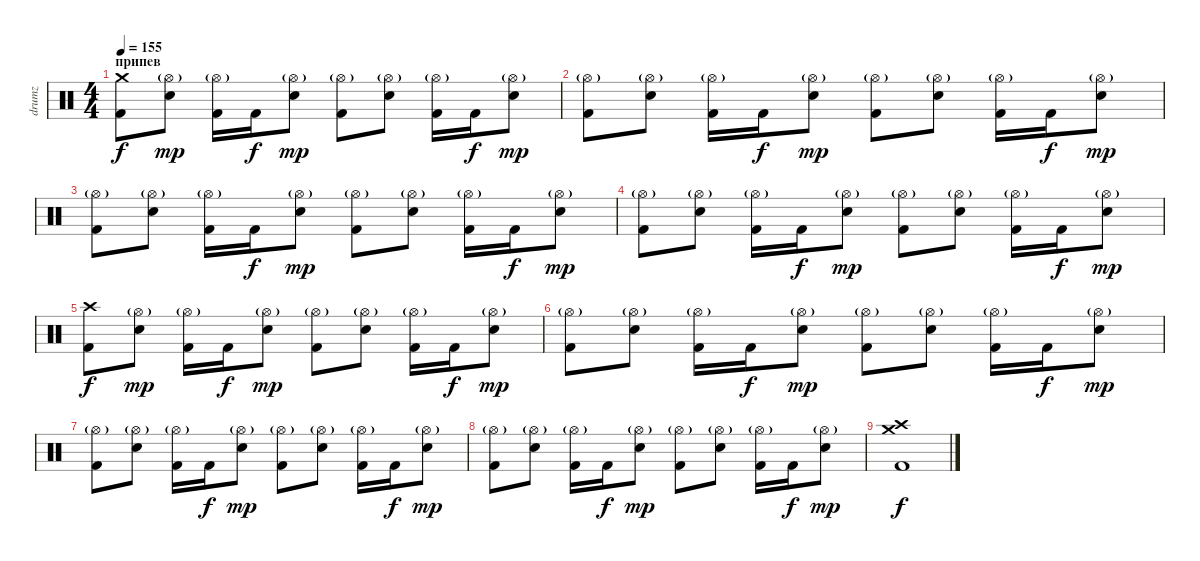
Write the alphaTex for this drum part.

\track ("drumz" "drumz") {instrument percussion}
\staff {score}
\articulation defaults
\ts (4 4)
\section ("" "припев")
\tempo 155
\clef neutral
\ks c
("Crash medium (hit)" "Kick (hit) 2").8{dy f} ("Hi-Hat (open)"{g} "Electric Snare (hit)").8{dy mp} ("Hi-Hat (open)"{g} "Kick (hit) 2").16 "Kick (hit) 2".16{dy f} ("Hi-Hat (open)"{g} "Electric Snare (hit)").8{dy mp} ("Hi-Hat (open)"{g} "Kick (hit) 2").8 ("Hi-Hat (open)"{g} "Electric Snare (hit)").8 ("Hi-Hat (open)"{g} "Kick (hit) 2").16 "Kick (hit) 2".16{dy f} ("Hi-Hat (open)"{g} "Electric Snare (hit)").8{dy mp} |
("Hi-Hat (open)"{g} "Kick (hit) 2").8 ("Hi-Hat (open)"{g} "Electric Snare (hit)").8 ("Hi-Hat (open)"{g} "Kick (hit) 2").16 "Kick (hit) 2".16{dy f} ("Hi-Hat (open)"{g} "Electric Snare (hit)").8{dy mp} ("Hi-Hat (open)"{g} "Kick (hit) 2").8 ("Hi-Hat (open)"{g} "Electric Snare (hit)").8 ("Hi-Hat (open)"{g} "Kick (hit) 2").16 "Kick (hit) 2".16{dy f} ("Hi-Hat (open)"{g} "Electric Snare (hit)").8{dy mp} |
("Hi-Hat (open)"{g} "Kick (hit) 2").8 ("Hi-Hat (open)"{g} "Electric Snare (hit)").8 ("Hi-Hat (open)"{g} "Kick (hit) 2").16 "Kick (hit) 2".16{dy f} ("Hi-Hat (open)"{g} "Electric Snare (hit)").8{dy mp} ("Hi-Hat (open)"{g} "Kick (hit) 2").8 ("Hi-Hat (open)"{g} "Electric Snare (hit)").8 ("Hi-Hat (open)"{g} "Kick (hit) 2").16 "Kick (hit) 2".16{dy f} ("Hi-Hat (open)"{g} "Electric Snare (hit)").8{dy mp} |
("Hi-Hat (open)"{g} "Kick (hit) 2").8 ("Hi-Hat (open)"{g} "Electric Snare (hit)").8 ("Hi-Hat (open)"{g} "Kick (hit) 2").16 "Kick (hit) 2".16{dy f} ("Hi-Hat (open)"{g} "Electric Snare (hit)").8{dy mp} ("Hi-Hat (open)"{g} "Kick (hit) 2").8 ("Hi-Hat (open)"{g} "Electric Snare (hit)").8 ("Hi-Hat (open)"{g} "Kick (hit) 2").16 "Kick (hit) 2".16{dy f} ("Hi-Hat (open)"{g} "Electric Snare (hit)").8{dy mp} |
("Crash high (hit)" "Kick (hit) 2").8{dy f} ("Hi-Hat (open)"{g} "Electric Snare (hit)").8{dy mp} ("Hi-Hat (open)"{g} "Kick (hit) 2").16 "Kick (hit) 2".16{dy f} ("Hi-Hat (open)"{g} "Electric Snare (hit)").8{dy mp} ("Hi-Hat (open)"{g} "Kick (hit) 2").8 ("Hi-Hat (open)"{g} "Electric Snare (hit)").8 ("Hi-Hat (open)"{g} "Kick (hit) 2").16 "Kick (hit) 2".16{dy f} ("Hi-Hat (open)"{g} "Electric Snare (hit)").8{dy mp} |
("Hi-Hat (open)"{g} "Kick (hit) 2").8 ("Hi-Hat (open)"{g} "Electric Snare (hit)").8 ("Hi-Hat (open)"{g} "Kick (hit) 2").16 "Kick (hit) 2".16{dy f} ("Hi-Hat (open)"{g} "Electric Snare (hit)").8{dy mp} ("Hi-Hat (open)"{g} "Kick (hit) 2").8 ("Hi-Hat (open)"{g} "Electric Snare (hit)").8 ("Hi-Hat (open)"{g} "Kick (hit) 2").16 "Kick (hit) 2".16{dy f} ("Hi-Hat (open)"{g} "Electric Snare (hit)").8{dy mp} |
("Hi-Hat (open)"{g} "Kick (hit) 2").8 ("Hi-Hat (open)"{g} "Electric Snare (hit)").8 ("Hi-Hat (open)"{g} "Kick (hit) 2").16 "Kick (hit) 2".16{dy f} ("Hi-Hat (open)"{g} "Electric Snare (hit)").8{dy mp} ("Hi-Hat (open)"{g} "Kick (hit) 2").8 ("Hi-Hat (open)"{g} "Electric Snare (hit)").8 ("Hi-Hat (open)"{g} "Kick (hit) 2").16 "Kick (hit) 2".16{dy f} ("Hi-Hat (open)"{g} "Electric Snare (hit)").8{dy mp} |
("Hi-Hat (open)"{g} "Kick (hit) 2").8 ("Hi-Hat (open)"{g} "Electric Snare (hit)").8 ("Hi-Hat (open)"{g} "Kick (hit) 2").16 "Kick (hit) 2".16{dy f} ("Hi-Hat (open)"{g} "Electric Snare (hit)").8{dy mp} ("Hi-Hat (open)"{g} "Kick (hit) 2").8 ("Hi-Hat (open)"{g} "Electric Snare (hit)").8 ("Hi-Hat (open)"{g} "Kick (hit) 2").16 "Kick (hit) 2".16{dy f} ("Hi-Hat (open)"{g} "Electric Snare (hit)").8{dy mp} |
("Crash medium (hit)" "Crash high (hit)" "Kick (hit) 2").1{dy f}
